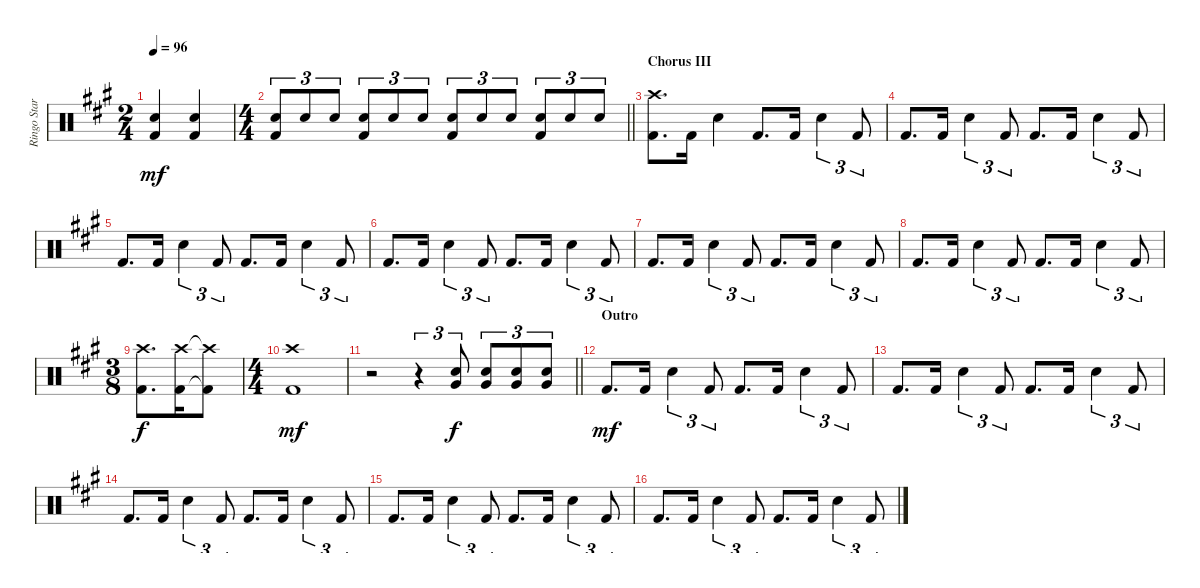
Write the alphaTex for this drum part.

\track ("Ringo Starr - Drums" "Ringo Star") {instrument percussion}
\staff {score}
\articulation defaults
\ts (2 4)
\tempo 96
\clef neutral
\ks a
("Snare (hit) 2" "Kick (hit) 2").4{dy mf} ("Snare (hit) 2" "Kick (hit) 2").4 |
\ts (4 4)
\barLineRight lightlight
("Snare (hit) 2" "Kick (hit) 2").8{tu (3 2)} "Snare (hit) 2".8{tu (3 2)} "Snare (hit) 2".8{tu (3 2)} ("Snare (hit) 2" "Kick (hit) 2").8{tu (3 2)} "Snare (hit) 2".8{tu (3 2)} "Snare (hit) 2".8{tu (3 2)} ("Snare (hit) 2" "Kick (hit) 2").8{tu (3 2)} "Snare (hit) 2".8{tu (3 2)} "Snare (hit) 2".8{tu (3 2)} ("Snare (hit) 2" "Kick (hit) 2").8{tu (3 2)} "Snare (hit) 2".8{tu (3 2)} "Snare (hit) 2".8{tu (3 2)} |
\section ("" "Chorus III")
("Crash high (hit)" "Kick (hit) 2").8{d} "Kick (hit) 2".16 "Snare (hit) 2".4 "Kick (hit) 2".8{d} "Kick (hit) 2".16 "Snare (hit) 2".4{tu (3 2)} "Kick (hit) 2".8{tu (3 2)} |
"Kick (hit) 2".8{d} "Kick (hit) 2".16 "Snare (hit) 2".4{tu (3 2)} "Kick (hit) 2".8{tu (3 2)} "Kick (hit) 2".8{d} "Kick (hit) 2".16 "Snare (hit) 2".4{tu (3 2)} "Kick (hit) 2".8{tu (3 2)} |
"Kick (hit) 2".8{d} "Kick (hit) 2".16 "Snare (hit) 2".4{tu (3 2)} "Kick (hit) 2".8{tu (3 2)} "Kick (hit) 2".8{d} "Kick (hit) 2".16 "Snare (hit) 2".4{tu (3 2)} "Kick (hit) 2".8{tu (3 2)} |
"Kick (hit) 2".8{d} "Kick (hit) 2".16 "Snare (hit) 2".4{tu (3 2)} "Kick (hit) 2".8{tu (3 2)} "Kick (hit) 2".8{d} "Kick (hit) 2".16 "Snare (hit) 2".4{tu (3 2)} "Kick (hit) 2".8{tu (3 2)} |
"Kick (hit) 2".8{d} "Kick (hit) 2".16 "Snare (hit) 2".4{tu (3 2)} "Kick (hit) 2".8{tu (3 2)} "Kick (hit) 2".8{d} "Kick (hit) 2".16 "Snare (hit) 2".4{tu (3 2)} "Kick (hit) 2".8{tu (3 2)} |
"Kick (hit) 2".8{d} "Kick (hit) 2".16 "Snare (hit) 2".4{tu (3 2)} "Kick (hit) 2".8{tu (3 2)} "Kick (hit) 2".8{d} "Kick (hit) 2".16 "Snare (hit) 2".4{tu (3 2)} "Kick (hit) 2".8{tu (3 2)} |
\ts (3 8)
("Crash high (hit)" "Kick (hit) 2").8{d dy f} ("Crash high (hit)" "Kick (hit) 2").16 ("Crash high (hit)"{t} "Kick (hit) 2"{t}).8 |
\ts (4 4)
("Crash high (hit)" "Kick (hit) 2").1{dy mf} |
\barLineRight lightlight
r.2 r.4{tu (3 2)} ("Snare (hit) 2" "Very Low Tom (hit)").8{tu (3 2) dy f} ("Snare (hit) 2" "Very Low Tom (hit)").8{tu (3 2)} ("Snare (hit) 2" "Very Low Tom (hit)").8{tu (3 2)} ("Snare (hit) 2" "Very Low Tom (hit)").8{tu (3 2)} |
\section ("" "Outro")
"Kick (hit) 2".8{d dy mf} "Kick (hit) 2".16 "Snare (hit) 2".4{tu (3 2)} "Kick (hit) 2".8{tu (3 2)} "Kick (hit) 2".8{d} "Kick (hit) 2".16 "Snare (hit) 2".4{tu (3 2)} "Kick (hit) 2".8{tu (3 2)} |
"Kick (hit) 2".8{d} "Kick (hit) 2".16 "Snare (hit) 2".4{tu (3 2)} "Kick (hit) 2".8{tu (3 2)} "Kick (hit) 2".8{d} "Kick (hit) 2".16 "Snare (hit) 2".4{tu (3 2)} "Kick (hit) 2".8{tu (3 2)} |
"Kick (hit) 2".8{d} "Kick (hit) 2".16 "Snare (hit) 2".4{tu (3 2)} "Kick (hit) 2".8{tu (3 2)} "Kick (hit) 2".8{d} "Kick (hit) 2".16 "Snare (hit) 2".4{tu (3 2)} "Kick (hit) 2".8{tu (3 2)} |
"Kick (hit) 2".8{d} "Kick (hit) 2".16 "Snare (hit) 2".4{tu (3 2)} "Kick (hit) 2".8{tu (3 2)} "Kick (hit) 2".8{d} "Kick (hit) 2".16 "Snare (hit) 2".4{tu (3 2)} "Kick (hit) 2".8{tu (3 2)} |
"Kick (hit) 2".8{d} "Kick (hit) 2".16 "Snare (hit) 2".4{tu (3 2)} "Kick (hit) 2".8{tu (3 2)} "Kick (hit) 2".8{d} "Kick (hit) 2".16 "Snare (hit) 2".4{tu (3 2)} "Kick (hit) 2".8{tu (3 2)}
